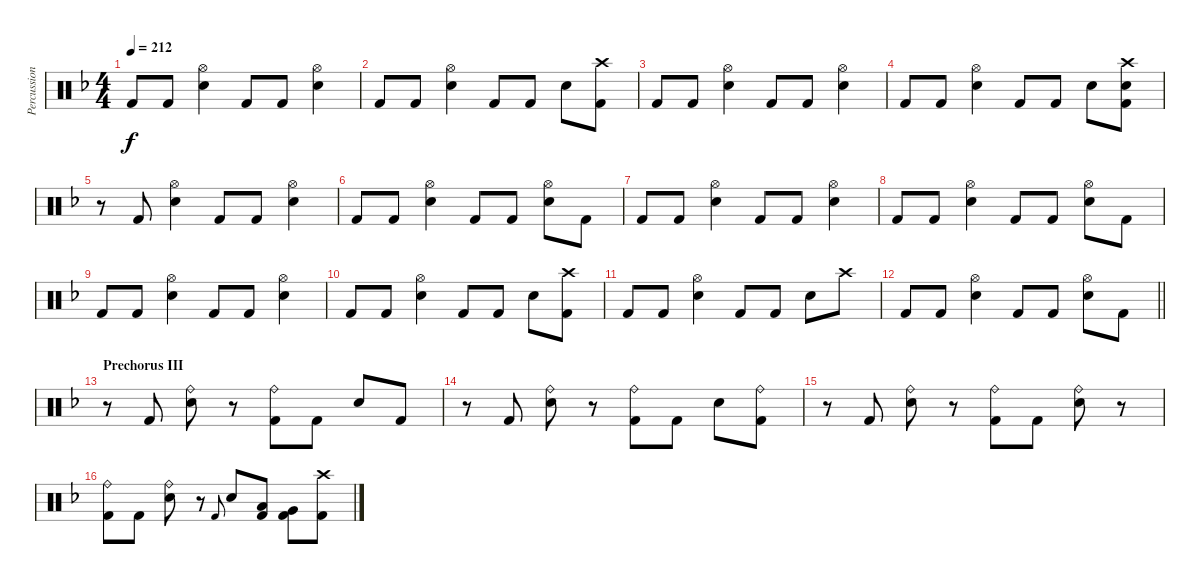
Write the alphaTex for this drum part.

\track ("Percussion" "Percussion") {instrument percussion}
\staff {score}
\articulation defaults
\ts (4 4)
\tempo 212
\clef neutral
\ks dminor "Kick (hit) 2".8{dy f} "Kick (hit) 2".8
("Hi-Hat (open)" "Electric Snare (hit)").4 "Kick (hit) 2".8 "Kick (hit) 2".8 ("Hi-Hat (open)" "Electric Snare (hit)").4 |
"Kick (hit) 2".8 "Kick (hit) 2".8 ("Hi-Hat (open)" "Electric Snare (hit)").4 "Kick (hit) 2".8 "Kick (hit) 2".8 "Electric Snare (hit)".8 ("Crash high (hit)" "Kick (hit) 2").8 |
"Kick (hit) 2".8 "Kick (hit) 2".8 ("Hi-Hat (open)" "Electric Snare (hit)").4 "Kick (hit) 2".8 "Kick (hit) 2".8 ("Hi-Hat (open)" "Electric Snare (hit)").4 |
"Kick (hit) 2".8 "Kick (hit) 2".8 ("Hi-Hat (open)" "Electric Snare (hit)").4 "Kick (hit) 2".8 "Kick (hit) 2".8 "Electric Snare (hit)".8 ("Crash high (hit)" "Electric Snare (hit)" "Kick (hit) 2").8 |
r.8 "Kick (hit) 2".8 ("Hi-Hat (open)" "Electric Snare (hit)").4 "Kick (hit) 2".8 "Kick (hit) 2".8 ("Hi-Hat (open)" "Electric Snare (hit)").4 |
"Kick (hit) 2".8 "Kick (hit) 2".8 ("Hi-Hat (open)" "Electric Snare (hit)").4 "Kick (hit) 2".8 "Kick (hit) 2".8 ("Hi-Hat (open)" "Electric Snare (hit)").8 "Kick (hit) 2".8 |
"Kick (hit) 2".8 "Kick (hit) 2".8 ("Hi-Hat (open)" "Electric Snare (hit)").4 "Kick (hit) 2".8 "Kick (hit) 2".8 ("Hi-Hat (open)" "Electric Snare (hit)").4 |
"Kick (hit) 2".8 "Kick (hit) 2".8 ("Hi-Hat (open)" "Electric Snare (hit)").4 "Kick (hit) 2".8 "Kick (hit) 2".8 ("Hi-Hat (open)" "Electric Snare (hit)").8 "Kick (hit) 2".8 |
"Kick (hit) 2".8 "Kick (hit) 2".8 ("Hi-Hat (open)" "Electric Snare (hit)").4 "Kick (hit) 2".8 "Kick (hit) 2".8 ("Hi-Hat (open)" "Electric Snare (hit)").4 |
"Kick (hit) 2".8 "Kick (hit) 2".8 ("Hi-Hat (open)" "Electric Snare (hit)").4 "Kick (hit) 2".8 "Kick (hit) 2".8 "Electric Snare (hit)".8 ("Crash high (hit)" "Kick (hit) 2").8 |
"Kick (hit) 2".8 "Kick (hit) 2".8 ("Hi-Hat (open)" "Electric Snare (hit)").4 "Kick (hit) 2".8 "Kick (hit) 2".8 "Electric Snare (hit)".8 "Crash high (hit)".8 |
\barLineRight lightlight "Kick (hit) 2".8 "Kick (hit) 2".8
("Hi-Hat (open)" "Electric Snare (hit)").4 "Kick (hit) 2".8 "Kick (hit) 2".8 ("Hi-Hat (open)" "Electric Snare (hit)").8 "Kick (hit) 2".8 |
\section ("" "Prechorus III")
r.8 "Kick (hit) 2".8 ("Ride (bell)" "Electric Snare (hit)").8 r.8 ("Ride (bell)" "Kick (hit) 2").8 "Kick (hit) 2".8 "Electric Snare (hit)".8 "Kick (hit) 2".8 |
r.8 "Kick (hit) 2".8 ("Ride (bell)" "Electric Snare (hit)").8 r.8 ("Ride (bell)" "Kick (hit) 2").8 "Kick (hit) 2".8 "Electric Snare (hit)".8 ("Ride (bell)" "Kick (hit) 2").8 |
r.8 "Kick (hit) 2".8 ("Ride (bell)" "Electric Snare (hit)").8 r.8 ("Ride (bell)" "Kick (hit) 2").8 "Kick (hit) 2".8 ("Ride (bell)" "Electric Snare (hit)").8 r.8 |
("Ride (bell)" "Kick (hit) 2").8 "Kick (hit) 2".8 ("Ride (bell)" "Electric Snare (hit)").8 r.8 "Kick (hit) 2".8{gr onbeat} "Electric Snare (hit)".8 ("Low Tom (hit)" "Kick (hit) 2").8 ("Very Low Tom (hit)" "Kick (hit) 2").8 ("Crash high (hit)" "Kick (hit) 2").8
